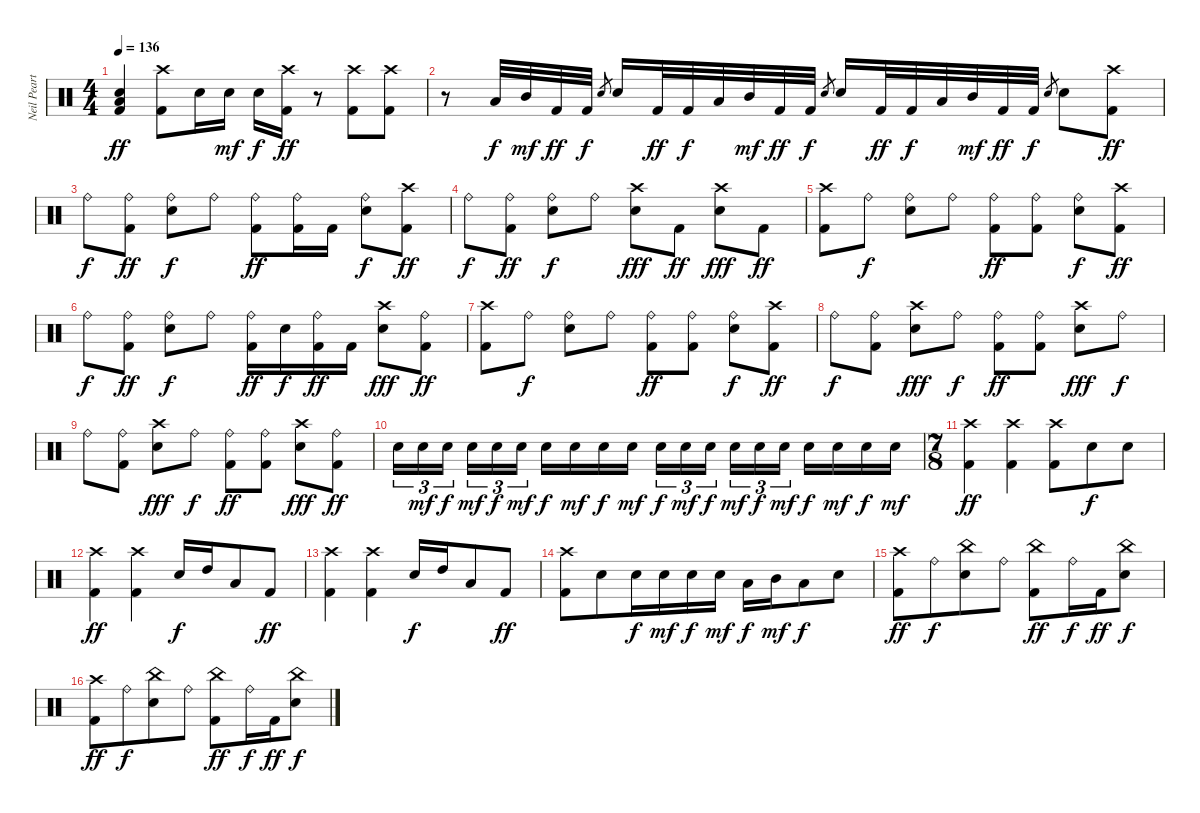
\track ("Neil Peart" "Neil Peart") {instrument percussion}
\staff {score}
\articulation defaults
\ts (4 4)
\tempo 136
\clef neutral
\ks c
("Snare (hit) 2" "Low Floor Tom (hit)" "Kick (hit) 2").4{dy ff} ("Crash high (hit)" "Kick (hit) 2").8 "Snare (hit) 2".16 "Snare (hit) 2".16{dy mf} "Snare (hit) 2".16{dy f} ("Crash high (hit)" "Kick (hit) 2").16{dy ff} r.8 ("Crash high (hit)" "Kick (hit) 2").8 ("Crash high (hit)" "Kick (hit) 2").8 |
r.8 "Low Tom (hit)".32{dy f} "Mid Tom (hit)".32{dy mf} "Kick (hit) 2".32{dy ff} "Kick (hit) 2".32{dy f} "Snare (hit) 2".8{gr} "Snare (hit) 2".16 "Kick (hit) 2".32{dy ff} "Kick (hit) 2".32{dy f} "Low Tom (hit)".32 "Mid Tom (hit)".32{dy mf} "Kick (hit) 2".32{dy ff} "Kick (hit) 2".32{dy f} "Snare (hit) 2".8{gr} "Snare (hit) 2".16 "Kick (hit) 2".32{dy ff} "Kick (hit) 2".32{dy f} "Low Tom (hit)".32 "Mid Tom (hit)".32{dy mf} "Kick (hit) 2".32{dy ff} "Kick (hit) 2".32{dy f} "Snare (hit) 2".8{gr} "Snare (hit) 2".8 ("Crash high (hit)" "Kick (hit) 2").8{dy ff} |
"Ride (bell)".8{dy f} ("Ride (bell)" "Kick (hit) 2").8{dy ff} ("Ride (bell)" "Snare (hit) 2").8{dy f} "Ride (bell)".8 ("Ride (bell)" "Kick (hit) 2").8{dy ff} ("Ride (bell)" "Kick (hit) 2").16 "Kick (hit) 2".16 ("Ride (bell)" "Snare (hit) 2").8{dy f} ("Crash high (hit)" "Kick (hit) 2").8{dy ff} |
"Ride (bell)".8{dy f} ("Ride (bell)" "Kick (hit) 2").8{dy ff} ("Ride (bell)" "Snare (hit) 2").8{dy f} "Ride (bell)".8 ("Crash high (hit)" "Snare (hit) 2").8{dy fff} "Kick (hit) 2".8{dy ff} ("Crash high (hit)" "Snare (hit) 2").8{dy fff} "Kick (hit) 2".8{dy ff} |
("Crash high (hit)" "Kick (hit) 2").8 "Ride (bell)".8{dy f} ("Ride (bell)" "Snare (hit) 2").8 "Ride (bell)".8 ("Ride (bell)" "Kick (hit) 2").8{dy ff} ("Ride (bell)" "Kick (hit) 2").8 ("Ride (bell)" "Snare (hit) 2").8{dy f} ("Crash high (hit)" "Kick (hit) 2").8{dy ff} |
"Ride (bell)".8{dy f} ("Ride (bell)" "Kick (hit) 2").8{dy ff} ("Ride (bell)" "Snare (hit) 2").8{dy f} "Ride (bell)".8 ("Ride (bell)" "Kick (hit) 2").16{dy ff} "Snare (hit) 2".16{dy f} ("Ride (bell)" "Kick (hit) 2").16{dy ff} "Kick (hit) 2".16 ("Crash high (hit)" "Snare (hit) 2").8{dy fff} ("Ride (bell)" "Kick (hit) 2").8{dy ff} |
("Crash high (hit)" "Kick (hit) 2").8 "Ride (bell)".8{dy f} ("Ride (bell)" "Snare (hit) 2").8 "Ride (bell)".8 ("Ride (bell)" "Kick (hit) 2").8{dy ff} ("Ride (bell)" "Kick (hit) 2").8 ("Ride (bell)" "Snare (hit) 2").8{dy f} ("Crash high (hit)" "Kick (hit) 2").8{dy ff} |
"Ride (bell)".8{dy f} ("Ride (bell)" "Kick (hit) 2").8 ("Crash high (hit)" "Snare (hit) 2").8{dy fff} "Ride (bell)".8{dy f} ("Ride (bell)" "Kick (hit) 2").8{dy ff} ("Ride (bell)" "Kick (hit) 2").8 ("Crash high (hit)" "Snare (hit) 2").8{dy fff} "Ride (bell)".8{dy f} |
"Ride (bell)".8 ("Ride (bell)" "Kick (hit) 2").8 ("Crash high (hit)" "Snare (hit) 2").8{dy fff} "Ride (bell)".8{dy f} ("Ride (bell)" "Kick (hit) 2").8{dy ff} ("Ride (bell)" "Kick (hit) 2").8 ("Crash high (hit)" "Snare (hit) 2").8{dy fff} ("Ride (bell)" "Kick (hit) 2").8{dy ff} |
"Snare (hit) 2".16{tu (3 2)} "Snare (hit) 2".16{tu (3 2) dy mf} "Snare (hit) 2".16{tu (3 2) dy f beam splitsecondary} "Snare (hit) 2".16{tu (3 2) dy mf} "Snare (hit) 2".16{tu (3 2) dy f} "Snare (hit) 2".16{tu (3 2) dy mf} "Snare (hit) 2".16{dy f} "Snare (hit) 2".16{dy mf} "Snare (hit) 2".16{dy f} "Snare (hit) 2".16{dy mf} "Snare (hit) 2".16{tu (3 2) dy f} "Snare (hit) 2".16{tu (3 2) dy mf} "Snare (hit) 2".16{tu (3 2) dy f beam splitsecondary} "Snare (hit) 2".16{tu (3 2) dy mf} "Snare (hit) 2".16{tu (3 2) dy f} "Snare (hit) 2".16{tu (3 2) dy mf} "Snare (hit) 2".16{dy f} "Snare (hit) 2".16{dy mf} "Snare (hit) 2".16{dy f} "Snare (hit) 2".16{dy mf} |
\ts (7 8)
("Crash high (hit)" "Kick (hit) 2").4{dy ff} ("Crash high (hit)" "Kick (hit) 2").4 ("Crash high (hit)" "Kick (hit) 2").8 "Snare (hit) 2".8{dy f} "Snare (hit) 2".8 |
("Crash high (hit)" "Kick (hit) 2").4{dy ff} ("Crash high (hit)" "Kick (hit) 2").4 "Snare (hit) 2".16{dy f} "High Tom (hit)".16 "Low Floor Tom (hit)".8 "Kick (hit) 2".8{dy ff} |
("Crash high (hit)" "Kick (hit) 2").4 ("Crash high (hit)" "Kick (hit) 2").4 "Snare (hit) 2".16{dy f} "High Tom (hit)".16 "Low Floor Tom (hit)".8 "Kick (hit) 2".8{dy ff} |
("Crash high (hit)" "Kick (hit) 2").8 "Snare (hit) 2".8 "Snare (hit) 2".16{dy f} "Snare (hit) 2".16{dy mf} "Snare (hit) 2".16{dy f} "Snare (hit) 2".16{dy mf} "Low Tom (hit)".16{dy f} "Mid Tom (hit)".16{dy mf} "Low Tom (hit)".8{dy f} "Snare (hit) 2".8 |
("Crash high (hit)" "Kick (hit) 2").8{dy ff} "Ride (bell)".8{dy f} ("China (hit)" "Snare (hit) 2").8 "Ride (bell)".8 ("China (hit)" "Kick (hit) 2").8{dy ff} "Ride (bell)".16{dy f} "Kick (hit) 2".16{dy ff} ("China (hit)" "Snare (hit) 2").8{dy f} |
("Crash high (hit)" "Kick (hit) 2").8{dy ff} "Ride (bell)".8{dy f} ("China (hit)" "Snare (hit) 2").8 "Ride (bell)".8 ("China (hit)" "Kick (hit) 2").8{dy ff} "Ride (bell)".16{dy f} "Kick (hit) 2".16{dy ff} ("China (hit)" "Snare (hit) 2").8{dy f}
